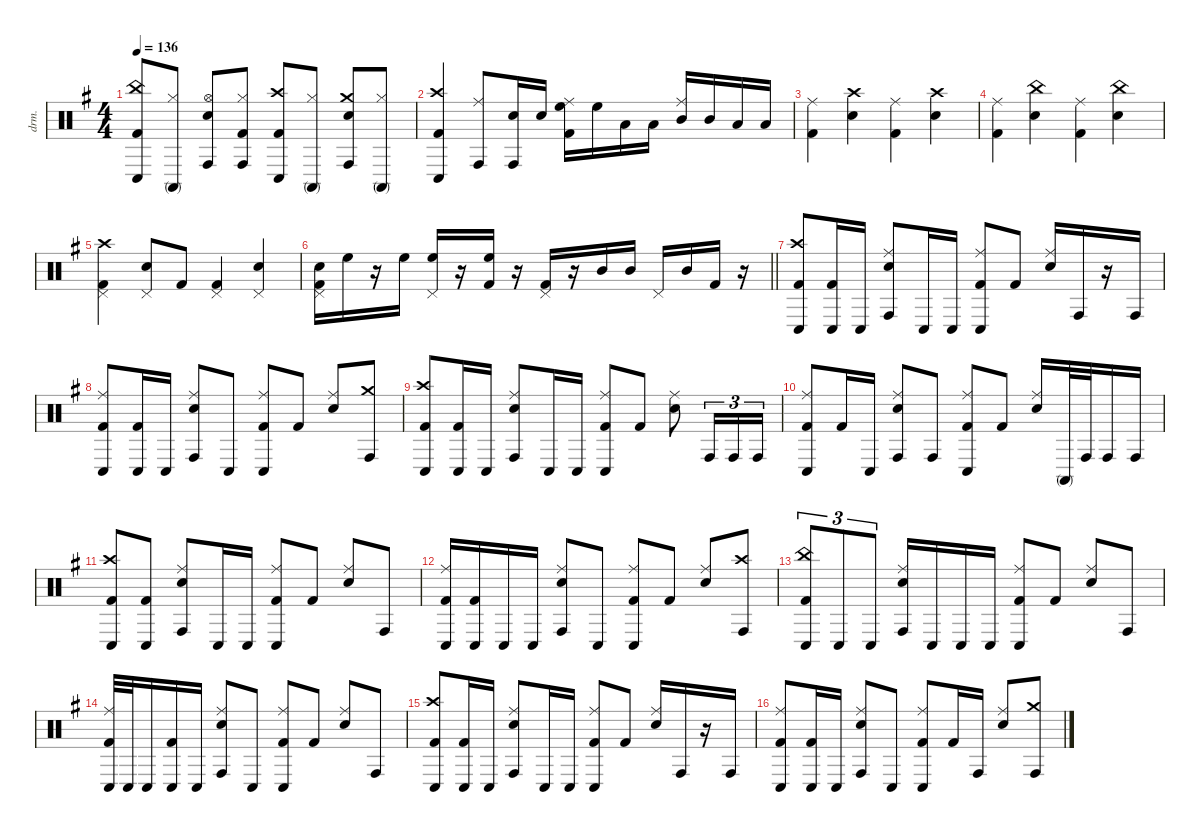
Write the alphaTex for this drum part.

\defaultSystemsLayout 4
\hideDynamics
\bracketExtendMode nobrackets
\otherSystemsTrackNameOrientation horizontal
\track ("Batterie" "drm.") {instrument percussion}
\staff {score}
\articulation defaults
\ts (4 4)
\tempo 136
\clef neutral
\ks g
("China (hit)"{acc forcenatural} "Conga low (hit)"{acc forcenatural} "Kick (hit) 2"{acc forcenatural}).8{dy f beam Up} ("Hi-Hat (closed)"{acc forcenatural} "Conga high (mute)"{acc forcenatural}).8{beam Up} ("Hi-Hat (open)"{acc forcenatural} "Conga high (hit)"{acc forcenatural} "Snare (hit) 2"{acc forcenatural}).8{beam Up} ("Hi-Hat (closed)"{acc forcenatural} "Conga high (hit)"{acc forcenatural} "Kick (hit) 2"{acc forcenatural}).8{beam Up} ("Crash high (hit)"{acc forcenatural} "Conga low (hit)"{acc forcenatural} "Kick (hit) 2"{acc forcenatural}).8{beam Up} ("Hi-Hat (closed)"{acc forcenatural} "Conga high (mute)"{acc forcenatural}).8{beam Up} ("Crash medium (hit)"{acc forcenatural} "Conga high (hit)"{acc forcenatural} "Snare (hit) 2"{acc forcenatural}).8{beam Up} ("Hi-Hat (closed)"{acc forcenatural} "Conga high (mute)"{acc forcenatural}).8{beam Up} |
("Crash high (hit)"{acc forcenatural} "Conga low (hit)"{acc forcenatural} "Kick (hit) 2"{acc forcenatural}).4{beam Up} ("Ride (middle)"{acc forcenatural} "Conga high (hit)"{acc forcenatural}).8{beam Up} ("Conga high (hit)"{acc forcenatural} "Snare (hit) 2"{acc forcenatural}).16{beam Up} "Snare (hit) 2"{acc forcenatural}.16{beam Up} ("Ride (middle)"{acc forcenatural} "High Floor Tom (hit)"{acc forcenatural} "Kick (hit) 2"{acc forcenatural}).16{beam Down} "High Floor Tom (hit)"{acc forcenatural}.16{beam Down} "Low Tom (hit)"{acc forcenatural}.16{beam Down} "Low Tom (hit)"{acc forcenatural}.16{beam Down} ("Ride (middle)"{acc forcenatural} "Mid Tom (hit)"{acc forcenatural}).16{beam Up} "Mid Tom (hit)"{acc forcenatural}.16{beam Up} "Low Floor Tom (hit)"{acc forcenatural}.16{beam Up} "Low Floor Tom (hit)"{acc forcenatural}.16{beam Up} |
("Ride (middle)"{acc forcenatural} "Kick (hit) 2"{acc forcenatural}).4{beam Down} ("Crash high (hit)"{acc forcenatural} "Snare (hit) 2"{acc forcenatural}).4{beam Down} ("Ride (middle)"{acc forcenatural} "Kick (hit) 2"{acc forcenatural}).4{beam Down} ("Crash high (hit)"{acc forcenatural} "Snare (hit) 2"{acc forcenatural}).4{beam Down} |
("Ride (middle)"{acc forcenatural} "Kick (hit) 2"{acc forcenatural}).4{beam Down} ("China (hit)"{acc forcenatural} "Snare (hit) 2"{acc forcenatural}).4{beam Down} ("Ride (middle)"{acc forcenatural} "Kick (hit) 2"{acc forcenatural}).4{beam Down} ("China (hit)"{acc forcenatural} "Snare (hit) 2"{acc forcenatural}).4{beam Down} |
("Crash high (hit)"{acc forcenatural} "Pedal Hi-Hat (hit)"{acc forcenatural} "Kick (hit) 2"{acc forcenatural}).4{beam Down} ("Pedal Hi-Hat (hit)"{acc forcenatural} "Snare (hit) 2"{acc forcenatural}).8{beam Up} "Kick (hit) 2"{acc forcenatural}.8{beam Up} ("Pedal Hi-Hat (hit)"{acc forcenatural} "Kick (hit) 2"{acc forcenatural}).4{beam Up} ("Pedal Hi-Hat (hit)"{acc forcenatural} "Snare (hit) 2"{acc forcenatural}).4{beam Up} |
\barLineRight lightlight
("Pedal Hi-Hat (hit)"{acc forcenatural} "Snare (hit) 2"{acc forcenatural} "Kick (hit) 2"{acc forcenatural}).16{beam Down} "High Floor Tom (hit)"{acc forcenatural}.16{beam Down} r.16{beam Down} "High Floor Tom (hit)"{acc forcenatural}.16{beam Down} ("Pedal Hi-Hat (hit)"{acc forcenatural} "High Floor Tom (hit)"{acc forcenatural}).16{beam Up} r.16{beam Up} ("High Floor Tom (hit)"{acc forcenatural} "Kick (hit) 2"{acc forcenatural}).16{beam Up} r.16{beam Up} ("Pedal Hi-Hat (hit)"{acc forcenatural} "Kick (hit) 2"{acc forcenatural}).16{beam Up} r.16{beam Up} "Mid Tom (hit)"{acc forcenatural}.16{beam Up} "Mid Tom (hit)"{acc forcenatural}.16{beam Up} "Pedal Hi-Hat (hit)"{acc forcenatural}.16{beam Up} "Mid Tom (hit)"{acc forcenatural}.16{beam Up} "Kick (hit) 2"{acc forcenatural}.16{beam Up} r.16{beam Up} |
("Crash high (hit)"{acc forcenatural} "Conga low (hit)"{acc forcenatural} "Kick (hit) 2"{acc forcenatural}).8{beam Up} ("Conga low (hit)"{acc forcenatural} "Kick (hit) 2"{acc forcenatural}).16{beam Up} "Conga low (hit)"{acc forcenatural}.16{beam Up} ("Ride (middle)"{acc forcenatural} "Conga high (hit)"{acc forcenatural} "Snare (hit) 2"{acc forcenatural}).8{beam Up} "Conga low (hit)"{acc forcenatural}.16{beam Up} "Conga low (hit)"{acc forcenatural}.16{beam Up} ("Ride (middle)"{acc forcenatural} "Conga low (hit)"{acc forcenatural} "Kick (hit) 2"{acc forcenatural}).8{beam Up} "Kick (hit) 2"{acc forcenatural}.8{beam Up} ("Ride (middle)"{acc forcenatural} "Snare (hit) 2"{acc forcenatural}).16{beam Up} "Conga high (hit)"{acc forcenatural}.16{beam Up} r.16{beam Up} "Conga high (hit)"{acc forcenatural}.16{beam Up} |
("Ride (middle)"{acc forcenatural} "Conga low (hit)"{acc forcenatural} "Kick (hit) 2"{acc forcenatural}).8{beam Up} ("Conga low (hit)"{acc forcenatural} "Kick (hit) 2"{acc forcenatural}).16{beam Up} "Conga low (hit)"{acc forcenatural}.16{beam Up} ("Ride (middle)"{acc forcenatural} "Conga high (hit)"{acc forcenatural} "Snare (hit) 2"{acc forcenatural}).8{beam Up} "Conga low (hit)"{acc forcenatural}.8{beam Up} ("Ride (middle)"{acc forcenatural} "Conga low (hit)"{acc forcenatural} "Kick (hit) 2"{acc forcenatural}).8{beam Up} "Kick (hit) 2"{acc forcenatural}.8{beam Up} ("Ride (middle)"{acc forcenatural} "Snare (hit) 2"{acc forcenatural}).8{beam Up} ("Crash medium (hit)"{acc forcenatural} "Conga high (hit)"{acc forcenatural}).8{beam Up} |
("Crash high (hit)"{acc forcenatural} "Conga low (hit)"{acc forcenatural} "Kick (hit) 2"{acc forcenatural}).8{beam Up} ("Conga low (hit)"{acc forcenatural} "Kick (hit) 2"{acc forcenatural}).16{beam Up} "Conga low (hit)"{acc forcenatural}.16{beam Up} ("Ride (middle)"{acc forcenatural} "Conga high (hit)"{acc forcenatural} "Snare (hit) 2"{acc forcenatural}).8{beam Up} "Conga low (hit)"{acc forcenatural}.16{beam Up} "Conga low (hit)"{acc forcenatural}.16{beam Up} ("Ride (middle)"{acc forcenatural} "Conga low (hit)"{acc forcenatural} "Kick (hit) 2"{acc forcenatural}).8{beam Up} "Kick (hit) 2"{acc forcenatural}.8{beam Up} ("Ride (middle)"{acc forcenatural} "Snare (hit) 2"{acc forcenatural}).8{beam Down} "Conga high (hit)"{acc forcenatural}.16{tu (3 2) beam Up} "Conga high (hit)"{acc forcenatural}.16{tu (3 2) beam Up} "Conga high (hit)"{acc forcenatural}.16{tu (3 2) beam Up} |
("Ride (middle)"{acc forcenatural} "Conga low (hit)"{acc forcenatural} "Kick (hit) 2"{acc forcenatural}).8{beam Up} "Kick (hit) 2"{acc forcenatural}.16{beam Up} "Conga low (hit)"{acc forcenatural}.16{beam Up} ("Ride (middle)"{acc forcenatural} "Conga high (hit)"{acc forcenatural} "Snare (hit) 2"{acc forcenatural}).8{beam Up} "Conga high (hit)"{acc forcenatural}.8{beam Up} ("Ride (middle)"{acc forcenatural} "Conga low (hit)"{acc forcenatural} "Kick (hit) 2"{acc forcenatural}).8{beam Up} "Kick (hit) 2"{acc forcenatural}.8{beam Up} ("Ride (middle)"{acc forcenatural} "Snare (hit) 2"{acc forcenatural}).16{beam Up} "Conga high (mute)"{acc forcenatural}.32{beam Up} "Conga high (hit)"{acc forcenatural}.32{beam Up} "Conga high (hit)"{acc forcenatural}.16{beam Up} "Conga high (hit)"{acc forcenatural}.16{beam Up} |
("Crash high (hit)"{acc forcenatural} "Conga low (hit)"{acc forcenatural} "Kick (hit) 2"{acc forcenatural}).8{beam Up} ("Conga low (hit)"{acc forcenatural} "Kick (hit) 2"{acc forcenatural}).8{beam Up} ("Ride (middle)"{acc forcenatural} "Conga high (hit)"{acc forcenatural} "Snare (hit) 2"{acc forcenatural}).8{beam Up} "Conga low (hit)"{acc forcenatural}.16{beam Up} "Conga low (hit)"{acc forcenatural}.16{beam Up} ("Ride (middle)"{acc forcenatural} "Conga low (hit)"{acc forcenatural} "Kick (hit) 2"{acc forcenatural}).8{beam Up} "Kick (hit) 2"{acc forcenatural}.8{beam Up} ("Ride (middle)"{acc forcenatural} "Snare (hit) 2"{acc forcenatural}).8{beam Up} "Conga high (hit)"{acc forcenatural}.8{beam Up} |
("Ride (middle)"{acc forcenatural} "Conga low (hit)"{acc forcenatural} "Kick (hit) 2"{acc forcenatural}).16{beam Up} ("Conga low (hit)"{acc forcenatural} "Kick (hit) 2"{acc forcenatural}).16{beam Up} "Conga low (hit)"{acc forcenatural}.16{beam Up} "Conga low (hit)"{acc forcenatural}.16{beam Up} ("Ride (middle)"{acc forcenatural} "Conga high (hit)"{acc forcenatural} "Snare (hit) 2"{acc forcenatural}).8{beam Up} "Conga low (hit)"{acc forcenatural}.8{beam Up} ("Ride (middle)"{acc forcenatural} "Conga low (hit)"{acc forcenatural} "Kick (hit) 2"{acc forcenatural}).8{beam Up} "Kick (hit) 2"{acc forcenatural}.8{beam Up} ("Ride (middle)"{acc forcenatural} "Snare (hit) 2"{acc forcenatural}).8{beam Up} ("Crash high (hit)"{acc forcenatural} "Conga high (hit)"{acc forcenatural}).8{beam Up} |
("China (hit)"{acc forcenatural} "Conga low (hit)"{acc forcenatural} "Kick (hit) 2"{acc forcenatural}).8{tu (3 2) beam Up} "Conga low (hit)"{acc forcenatural}.8{tu (3 2) beam Up} "Conga low (hit)"{acc forcenatural}.8{tu (3 2) beam Up} ("Ride (middle)"{acc forcenatural} "Conga high (hit)"{acc forcenatural} "Snare (hit) 2"{acc forcenatural}).16{beam Up} "Conga low (hit)"{acc forcenatural}.16{beam Up} "Conga low (hit)"{acc forcenatural}.16{beam Up} "Conga low (hit)"{acc forcenatural}.16{beam Up} ("Ride (middle)"{acc forcenatural} "Conga low (hit)"{acc forcenatural} "Kick (hit) 2"{acc forcenatural}).8{beam Up} "Kick (hit) 2"{acc forcenatural}.8{beam Up} ("Ride (middle)"{acc forcenatural} "Snare (hit) 2"{acc forcenatural}).8{beam Up} "Conga high (hit)"{acc forcenatural}.8{beam Up} |
("Ride (middle)"{acc forcenatural} "Conga low (hit)"{acc forcenatural} "Kick (hit) 2"{acc forcenatural}).32{beam Up} "Conga low (hit)"{acc forcenatural}.32{beam Up} "Conga low (hit)"{acc forcenatural}.16{beam Up} ("Conga low (hit)"{acc forcenatural} "Kick (hit) 2"{acc forcenatural}).16{beam Up} "Conga low (hit)"{acc forcenatural}.16{beam Up} ("Ride (middle)"{acc forcenatural} "Conga high (hit)"{acc forcenatural} "Snare (hit) 2"{acc forcenatural}).8{beam Up} "Conga low (hit)"{acc forcenatural}.8{beam Up} ("Ride (middle)"{acc forcenatural} "Conga low (hit)"{acc forcenatural} "Kick (hit) 2"{acc forcenatural}).8{beam Up} "Kick (hit) 2"{acc forcenatural}.8{beam Up} ("Ride (middle)"{acc forcenatural} "Snare (hit) 2"{acc forcenatural}).8{beam Up} "Conga high (hit)"{acc forcenatural}.8{beam Up} |
("Crash high (hit)"{acc forcenatural} "Conga low (hit)"{acc forcenatural} "Kick (hit) 2"{acc forcenatural}).8{beam Up} ("Conga low (hit)"{acc forcenatural} "Kick (hit) 2"{acc forcenatural}).16{beam Up} "Conga low (hit)"{acc forcenatural}.16{beam Up} ("Ride (middle)"{acc forcenatural} "Conga high (hit)"{acc forcenatural} "Snare (hit) 2"{acc forcenatural}).8{beam Up} "Conga low (hit)"{acc forcenatural}.16{beam Up} "Conga low (hit)"{acc forcenatural}.16{beam Up} ("Ride (middle)"{acc forcenatural} "Conga low (hit)"{acc forcenatural} "Kick (hit) 2"{acc forcenatural}).8{beam Up} "Kick (hit) 2"{acc forcenatural}.8{beam Up} ("Ride (middle)"{acc forcenatural} "Snare (hit) 2"{acc forcenatural}).16{beam Up} "Conga high (hit)"{acc forcenatural}.16{beam Up} r.16{beam Up} "Conga high (hit)"{acc forcenatural}.16{beam Up} |
("Ride (middle)"{acc forcenatural} "Conga low (hit)"{acc forcenatural} "Kick (hit) 2"{acc forcenatural}).8{beam Up} ("Conga low (hit)"{acc forcenatural} "Kick (hit) 2"{acc forcenatural}).16{beam Up} "Conga low (hit)"{acc forcenatural}.16{beam Up} ("Ride (middle)"{acc forcenatural} "Conga high (hit)"{acc forcenatural} "Snare (hit) 2"{acc forcenatural}).8{beam Up} "Conga low (hit)"{acc forcenatural}.8{beam Up} ("Ride (middle)"{acc forcenatural} "Conga low (hit)"{acc forcenatural} "Kick (hit) 2"{acc forcenatural}).8{beam Up} "Kick (hit) 2"{acc forcenatural}.16{beam Up} "Conga high (hit)"{acc forcenatural}.16{beam Up} ("Ride (middle)"{acc forcenatural} "Snare (hit) 2"{acc forcenatural}).8{beam Up} ("Crash medium (hit)"{acc forcenatural} "Conga high (hit)"{acc forcenatural}).8{beam Up}
